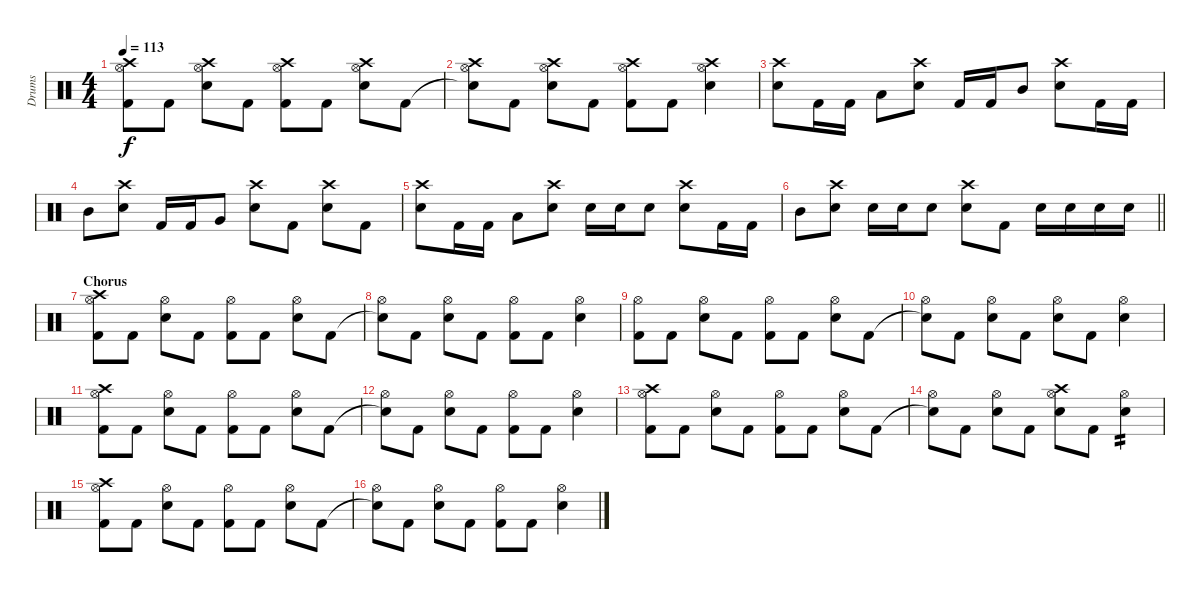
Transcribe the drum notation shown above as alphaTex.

\track ("Drums" "Drums") {instrument percussion}
\staff {score}
\articulation defaults
\ts (4 4)
\tempo 113
\clef neutral
\ks c
("Kick (hit) 2" "Hi-Hat (open)" "Crash high (hit)").8{dy f} "Kick (hit) 2".8 ("Electric Snare (hit)" "Hi-Hat (open)" "Crash high (hit)").8 "Kick (hit) 2".8 ("Kick (hit) 2" "Hi-Hat (open)" "Crash high (hit)").8 "Kick (hit) 2".8 ("Electric Snare (hit)" "Hi-Hat (open)" "Crash high (hit)").8 "Kick (hit) 2".8 |
("Snare (hit)"{t} "Hi-Hat (open)" "Crash high (hit)").8 "Kick (hit) 2".8 ("Electric Snare (hit)" "Hi-Hat (open)" "Crash high (hit)").8 "Kick (hit) 2".8 ("Kick (hit) 2" "Hi-Hat (open)" "Crash high (hit)").8 "Kick (hit) 2".8 ("Electric Snare (hit)" "Hi-Hat (open)" "Crash high (hit)").4 |
("Electric Snare (hit)" "Crash high (hit)").8 "Kick (hit) 2".16 "Kick (hit) 2".16 "Low Tom (hit)".8 ("Electric Snare (hit)" "Crash high (hit)").8 "Kick (hit) 2".16 "Kick (hit) 2".16 "Mid Tom (hit)".8 ("Electric Snare (hit)" "Crash high (hit)").8 "Kick (hit) 2".16 "Kick (hit) 2".16 |
"Mid Tom (hit)".8 ("Electric Snare (hit)" "Crash high (hit)").8 "Kick (hit) 2".16 "Kick (hit) 2".16 "Very Low Tom (hit)".8 ("Electric Snare (hit)" "Crash high (hit)").8 "Kick (hit) 2".8 ("Electric Snare (hit)" "Crash high (hit)").8 "Kick (hit) 2".8 |
("Electric Snare (hit)" "Crash high (hit)").8 "Kick (hit) 2".16 "Kick (hit) 2".16 "Low Tom (hit)".8 ("Electric Snare (hit)" "Crash high (hit)").8 "Electric Snare (hit)".16 "Electric Snare (hit)".16 "Electric Snare (hit)".8 ("Electric Snare (hit)" "Crash high (hit)").8 "Kick (hit) 2".16 "Kick (hit) 2".16 |
\barLineRight lightlight "Mid Tom (hit)".8
("Electric Snare (hit)" "Crash high (hit)").8 "Electric Snare (hit)".16 "Electric Snare (hit)".16 "Electric Snare (hit)".8 ("Electric Snare (hit)" "Crash high (hit)").8 "Kick (hit) 2".8 "Electric Snare (hit)".16 "Electric Snare (hit)".16 "Electric Snare (hit)".16 "Electric Snare (hit)".16 |
\section ("" "Chorus")
("Kick (hit) 2" "Hi-Hat (open)" "Crash high (hit)").8 "Kick (hit) 2".8 ("Electric Snare (hit)" "Hi-Hat (open)").8 "Kick (hit) 2".8 ("Kick (hit) 2" "Hi-Hat (open)").8 "Kick (hit) 2".8 ("Electric Snare (hit)" "Hi-Hat (open)").8 "Kick (hit) 2".8 |
("Snare (hit)"{t} "Hi-Hat (open)").8 "Kick (hit) 2".8 ("Electric Snare (hit)" "Hi-Hat (open)").8 "Kick (hit) 2".8 ("Kick (hit) 2" "Hi-Hat (open)").8 "Kick (hit) 2".8 ("Electric Snare (hit)" "Hi-Hat (open)").4 |
("Kick (hit) 2" "Hi-Hat (open)").8 "Kick (hit) 2".8 ("Electric Snare (hit)" "Hi-Hat (open)").8 "Kick (hit) 2".8 ("Kick (hit) 2" "Hi-Hat (open)").8 "Kick (hit) 2".8 ("Electric Snare (hit)" "Hi-Hat (open)").8 "Kick (hit) 2".8 |
("Snare (hit)"{t} "Hi-Hat (open)").8 "Kick (hit) 2".8 ("Electric Snare (hit)" "Hi-Hat (open)").8 "Kick (hit) 2".8 ("Electric Snare (hit)" "Hi-Hat (open)").8 "Kick (hit) 2".8 ("Electric Snare (hit)" "Hi-Hat (open)").4 |
("Kick (hit) 2" "Hi-Hat (open)" "Crash high (hit)").8 "Kick (hit) 2".8 ("Electric Snare (hit)" "Hi-Hat (open)").8 "Kick (hit) 2".8 ("Kick (hit) 2" "Hi-Hat (open)").8 "Kick (hit) 2".8 ("Electric Snare (hit)" "Hi-Hat (open)").8 "Kick (hit) 2".8 |
("Snare (hit)"{t} "Hi-Hat (open)").8 "Kick (hit) 2".8 ("Electric Snare (hit)" "Hi-Hat (open)").8 "Kick (hit) 2".8 ("Kick (hit) 2" "Hi-Hat (open)").8 "Kick (hit) 2".8 ("Electric Snare (hit)" "Hi-Hat (open)").4 |
("Kick (hit) 2" "Hi-Hat (open)" "Crash high (hit)").8 "Kick (hit) 2".8 ("Electric Snare (hit)" "Hi-Hat (open)").8 "Kick (hit) 2".8 ("Kick (hit) 2" "Hi-Hat (open)").8 "Kick (hit) 2".8 ("Electric Snare (hit)" "Hi-Hat (open)").8 "Kick (hit) 2".8 |
("Snare (hit)"{t} "Hi-Hat (open)").8 "Kick (hit) 2".8 ("Electric Snare (hit)" "Hi-Hat (open)").8 "Kick (hit) 2".8 ("Electric Snare (hit)" "Hi-Hat (open)" "Crash high (hit)").8 "Kick (hit) 2".8 ("Electric Snare (hit)" "Hi-Hat (open)").4{tp 2} |
("Kick (hit) 2" "Hi-Hat (open)" "Crash high (hit)").8 "Kick (hit) 2".8 ("Electric Snare (hit)" "Hi-Hat (open)").8 "Kick (hit) 2".8 ("Kick (hit) 2" "Hi-Hat (open)").8 "Kick (hit) 2".8 ("Electric Snare (hit)" "Hi-Hat (open)").8 "Kick (hit) 2".8 |
("Snare (hit)"{t} "Hi-Hat (open)").8 "Kick (hit) 2".8 ("Electric Snare (hit)" "Hi-Hat (open)").8 "Kick (hit) 2".8 ("Kick (hit) 2" "Hi-Hat (open)").8 "Kick (hit) 2".8 ("Electric Snare (hit)" "Hi-Hat (open)").4
